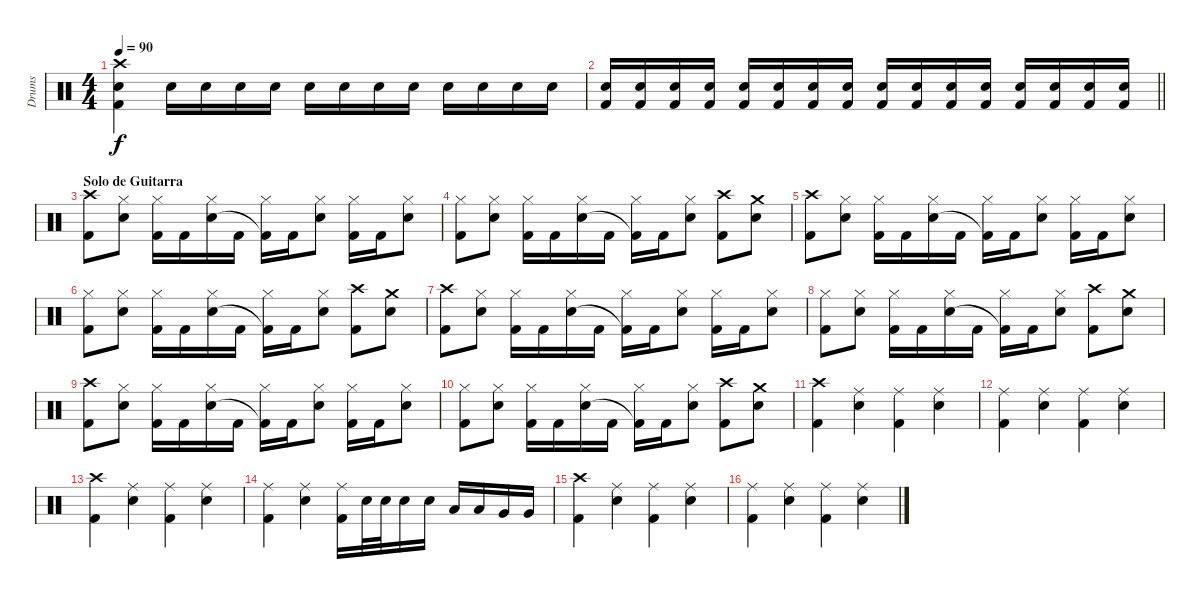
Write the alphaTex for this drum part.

\track ("Drums" "Drums") {instrument percussion}
\staff {score}
\articulation defaults
\ts (4 4)
\tempo 90
\clef neutral
\ks c
("Crash high (hit)" "Snare (hit) 2" "Kick (hit) 2").4{dy f} "Snare (hit) 2".16{volume 0} "Snare (hit) 2".16{volume 13} "Snare (hit) 2".16 "Snare (hit) 2".16 "Snare (hit) 2".16 "Snare (hit) 2".16 "Snare (hit) 2".16 "Snare (hit) 2".16 "Snare (hit) 2".16 "Snare (hit) 2".16 "Snare (hit) 2".16 "Snare (hit) 2".16 |
\barLineRight lightlight
("Snare (hit) 2" "Kick (hit) 2").16 ("Snare (hit) 2" "Kick (hit) 2").16 ("Snare (hit) 2" "Kick (hit) 2").16 ("Snare (hit) 2" "Kick (hit) 2").16 ("Snare (hit) 2" "Kick (hit) 2").16 ("Snare (hit) 2" "Kick (hit) 2").16 ("Snare (hit) 2" "Kick (hit) 2").16 ("Snare (hit) 2" "Kick (hit) 2").16 ("Snare (hit) 2" "Kick (hit) 2").16 ("Snare (hit) 2" "Kick (hit) 2").16 ("Snare (hit) 2" "Kick (hit) 2").16 ("Snare (hit) 2" "Kick (hit) 2").16 ("Snare (hit) 2" "Kick (hit) 2").16 ("Snare (hit) 2" "Kick (hit) 2").16 ("Snare (hit) 2" "Kick (hit) 2").16 ("Snare (hit) 2" "Kick (hit) 2").16 |
\section ("" "Solo de Guitarra")
("Crash high (hit)" "Kick (hit) 2").8 ("Hi-Hat (closed)" "Snare (hit) 2").8 ("Hi-Hat (closed)" "Kick (hit) 2").16 "Kick (hit) 2".16 ("Hi-Hat (closed)" "Snare (hit) 2").16 "Kick (hit) 2".16 ("Hi-Hat (closed)" "Kick (hit) 2"{t}).16 "Kick (hit) 2".16 ("Hi-Hat (closed)" "Snare (hit) 2").8 ("Hi-Hat (closed)" "Kick (hit) 2").16 "Kick (hit) 2".16 ("Hi-Hat (closed)" "Snare (hit) 2").8 |
("Hi-Hat (closed)" "Kick (hit) 2").8 ("Hi-Hat (closed)" "Snare (hit) 2").8 ("Hi-Hat (closed)" "Kick (hit) 2").16 "Kick (hit) 2".16 ("Hi-Hat (closed)" "Snare (hit) 2").16 "Kick (hit) 2".16 ("Hi-Hat (closed)" "Kick (hit) 2"{t}).16 "Kick (hit) 2".16 ("Hi-Hat (closed)" "Snare (hit) 2").8 ("Crash high (hit)" "Kick (hit) 2").8 ("Crash medium (hit)" "Snare (hit) 2").8 |
("Crash high (hit)" "Kick (hit) 2").8 ("Hi-Hat (closed)" "Snare (hit) 2").8 ("Hi-Hat (closed)" "Kick (hit) 2").16 "Kick (hit) 2".16 ("Hi-Hat (closed)" "Snare (hit) 2").16 "Kick (hit) 2".16 ("Hi-Hat (closed)" "Kick (hit) 2"{t}).16 "Kick (hit) 2".16 ("Hi-Hat (closed)" "Snare (hit) 2").8 ("Hi-Hat (closed)" "Kick (hit) 2").16 "Kick (hit) 2".16 ("Hi-Hat (closed)" "Snare (hit) 2").8 |
("Hi-Hat (closed)" "Kick (hit) 2").8 ("Hi-Hat (closed)" "Snare (hit) 2").8 ("Hi-Hat (closed)" "Kick (hit) 2").16 "Kick (hit) 2".16 ("Hi-Hat (closed)" "Snare (hit) 2").16 "Kick (hit) 2".16 ("Hi-Hat (closed)" "Kick (hit) 2"{t}).16 "Kick (hit) 2".16 ("Hi-Hat (closed)" "Snare (hit) 2").8 ("Crash high (hit)" "Kick (hit) 2").8 ("Crash medium (hit)" "Snare (hit) 2").8 |
("Crash high (hit)" "Kick (hit) 2").8 ("Hi-Hat (closed)" "Snare (hit) 2").8 ("Hi-Hat (closed)" "Kick (hit) 2").16 "Kick (hit) 2".16 ("Hi-Hat (closed)" "Snare (hit) 2").16 "Kick (hit) 2".16 ("Hi-Hat (closed)" "Kick (hit) 2"{t}).16 "Kick (hit) 2".16 ("Hi-Hat (closed)" "Snare (hit) 2").8 ("Hi-Hat (closed)" "Kick (hit) 2").16 "Kick (hit) 2".16 ("Hi-Hat (closed)" "Snare (hit) 2").8 |
("Hi-Hat (closed)" "Kick (hit) 2").8 ("Hi-Hat (closed)" "Snare (hit) 2").8 ("Hi-Hat (closed)" "Kick (hit) 2").16 "Kick (hit) 2".16 ("Hi-Hat (closed)" "Snare (hit) 2").16 "Kick (hit) 2".16 ("Hi-Hat (closed)" "Kick (hit) 2"{t}).16 "Kick (hit) 2".16 ("Hi-Hat (closed)" "Snare (hit) 2").8 ("Crash high (hit)" "Kick (hit) 2").8 ("Crash medium (hit)" "Snare (hit) 2").8 |
("Crash high (hit)" "Kick (hit) 2").8 ("Hi-Hat (closed)" "Snare (hit) 2").8 ("Hi-Hat (closed)" "Kick (hit) 2").16 "Kick (hit) 2".16 ("Hi-Hat (closed)" "Snare (hit) 2").16 "Kick (hit) 2".16 ("Hi-Hat (closed)" "Kick (hit) 2"{t}).16 "Kick (hit) 2".16 ("Hi-Hat (closed)" "Snare (hit) 2").8 ("Hi-Hat (closed)" "Kick (hit) 2").16 "Kick (hit) 2".16 ("Hi-Hat (closed)" "Snare (hit) 2").8 |
("Hi-Hat (closed)" "Kick (hit) 2").8 ("Hi-Hat (closed)" "Snare (hit) 2").8 ("Hi-Hat (closed)" "Kick (hit) 2").16 "Kick (hit) 2".16 ("Hi-Hat (closed)" "Snare (hit) 2").16 "Kick (hit) 2".16 ("Hi-Hat (closed)" "Kick (hit) 2"{t}).16 "Kick (hit) 2".16 ("Hi-Hat (closed)" "Snare (hit) 2").8 ("Crash high (hit)" "Kick (hit) 2").8 ("Crash medium (hit)" "Snare (hit) 2").8 |
("Crash high (hit)" "Kick (hit) 2").4 ("Ride (middle)" "Snare (hit) 2").4 ("Ride (middle)" "Kick (hit) 2").4 ("Ride (middle)" "Snare (hit) 2").4 |
("Ride (middle)" "Kick (hit) 2").4 ("Ride (middle)" "Snare (hit) 2").4 ("Ride (middle)" "Kick (hit) 2").4 ("Ride (middle)" "Snare (hit) 2").4 |
("Crash high (hit)" "Kick (hit) 2").4 ("Ride (middle)" "Snare (hit) 2").4 ("Ride (middle)" "Kick (hit) 2").4 ("Ride (middle)" "Snare (hit) 2").4 |
("Ride (middle)" "Kick (hit) 2").4 ("Ride (middle)" "Snare (hit) 2").4 ("Ride (middle)" "Kick (hit) 2").16 "Snare (hit) 2".32 "Snare (hit) 2".32 "Snare (hit) 2".16 "Snare (hit) 2".16 "Low Tom (hit)".16 "Low Tom (hit)".16 "Very Low Tom (hit)".16 "Very Low Tom (hit)".16 |
("Crash high (hit)" "Kick (hit) 2").4 ("Ride (middle)" "Snare (hit) 2").4 ("Ride (middle)" "Kick (hit) 2").4 ("Ride (middle)" "Snare (hit) 2").4 |
("Ride (middle)" "Kick (hit) 2").4 ("Ride (middle)" "Snare (hit) 2").4 ("Ride (middle)" "Kick (hit) 2").4 ("Ride (middle)" "Snare (hit) 2").4
